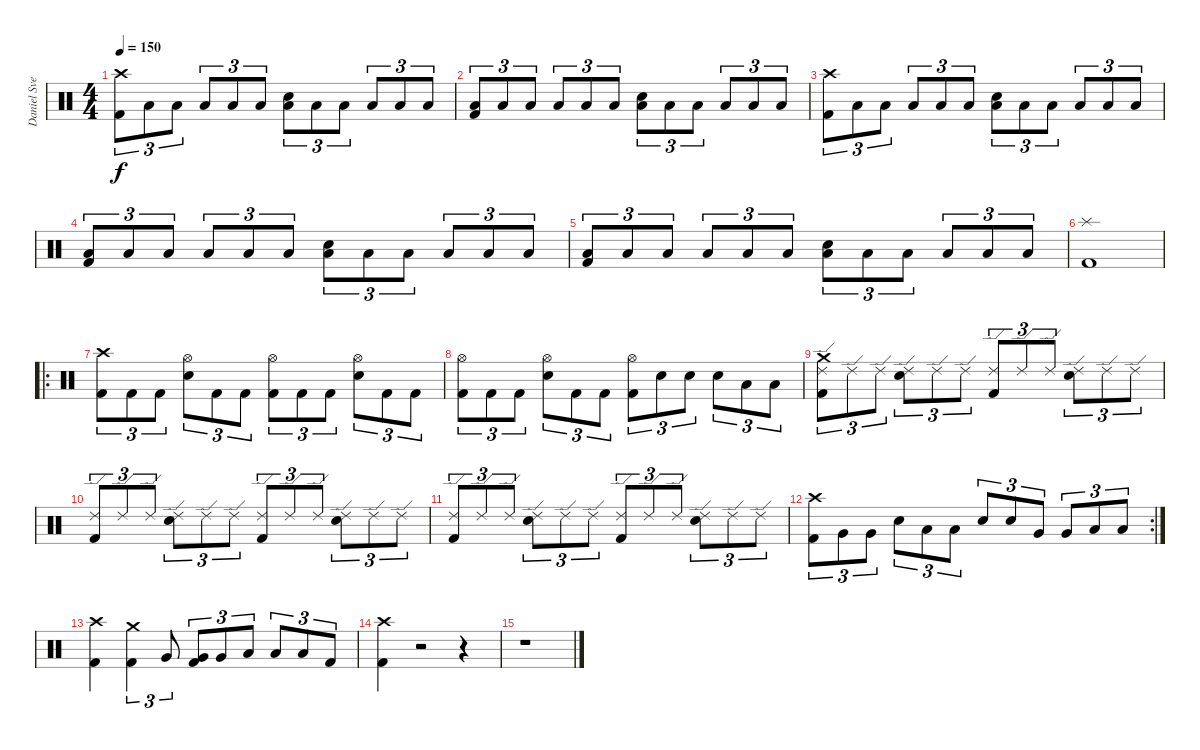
\track ("Daniel Svensson" "Daniel Sve") {instrument percussion}
\staff {score}
\articulation defaults
\ts (4 4)
\tempo 150
\clef neutral
\ks c
("Crash high (hit)" "Kick (hit) 2").8{tu (3 2) dy f} "Low Floor Tom (hit)".8{tu (3 2)} "Low Floor Tom (hit)".8{tu (3 2)} "Low Floor Tom (hit)".8{tu (3 2)} "Low Floor Tom (hit)".8{tu (3 2)} "Low Floor Tom (hit)".8{tu (3 2)} ("Electric Snare (hit)" "Low Floor Tom (hit)").8{tu (3 2)} "Low Floor Tom (hit)".8{tu (3 2)} "Low Floor Tom (hit)".8{tu (3 2)} "Low Floor Tom (hit)".8{tu (3 2)} "Low Floor Tom (hit)".8{tu (3 2)} "Low Floor Tom (hit)".8{tu (3 2)} |
("Kick (hit) 2" "Low Floor Tom (hit)").8{tu (3 2)} "Low Floor Tom (hit)".8{tu (3 2)} "Low Floor Tom (hit)".8{tu (3 2)} "Low Floor Tom (hit)".8{tu (3 2)} "Low Floor Tom (hit)".8{tu (3 2)} "Low Floor Tom (hit)".8{tu (3 2)} ("Electric Snare (hit)" "Low Floor Tom (hit)").8{tu (3 2)} "Low Floor Tom (hit)".8{tu (3 2)} "Low Floor Tom (hit)".8{tu (3 2)} "Low Floor Tom (hit)".8{tu (3 2)} "Low Floor Tom (hit)".8{tu (3 2)} "Low Floor Tom (hit)".8{tu (3 2)} |
("Crash high (hit)" "Kick (hit) 2").8{tu (3 2)} "Low Floor Tom (hit)".8{tu (3 2)} "Low Floor Tom (hit)".8{tu (3 2)} "Low Floor Tom (hit)".8{tu (3 2)} "Low Floor Tom (hit)".8{tu (3 2)} "Low Floor Tom (hit)".8{tu (3 2)} ("Electric Snare (hit)" "Low Floor Tom (hit)").8{tu (3 2)} "Low Floor Tom (hit)".8{tu (3 2)} "Low Floor Tom (hit)".8{tu (3 2)} "Low Floor Tom (hit)".8{tu (3 2)} "Low Floor Tom (hit)".8{tu (3 2)} "Low Floor Tom (hit)".8{tu (3 2)} |
("Kick (hit) 2" "Low Floor Tom (hit)").8{tu (3 2)} "Low Floor Tom (hit)".8{tu (3 2)} "Low Floor Tom (hit)".8{tu (3 2)} "Low Floor Tom (hit)".8{tu (3 2)} "Low Floor Tom (hit)".8{tu (3 2)} "Low Floor Tom (hit)".8{tu (3 2)} ("Electric Snare (hit)" "Low Floor Tom (hit)").8{tu (3 2)} "Low Floor Tom (hit)".8{tu (3 2)} "Low Floor Tom (hit)".8{tu (3 2)} "Low Floor Tom (hit)".8{tu (3 2)} "Low Floor Tom (hit)".8{tu (3 2)} "Low Floor Tom (hit)".8{tu (3 2)} |
("Kick (hit) 2" "Low Floor Tom (hit)").8{tu (3 2)} "Low Floor Tom (hit)".8{tu (3 2)} "Low Floor Tom (hit)".8{tu (3 2)} "Low Floor Tom (hit)".8{tu (3 2)} "Low Floor Tom (hit)".8{tu (3 2)} "Low Floor Tom (hit)".8{tu (3 2)} ("Electric Snare (hit)" "Low Floor Tom (hit)").8{tu (3 2)} "Low Floor Tom (hit)".8{tu (3 2)} "Low Floor Tom (hit)".8{tu (3 2)} "Low Floor Tom (hit)".8{tu (3 2)} "Low Floor Tom (hit)".8{tu (3 2)} "Low Floor Tom (hit)".8{tu (3 2)} |
("Splash (hit)" "Kick (hit) 2").1 |
\ro
("Crash high (hit)" "Kick (hit) 2").8{tu (3 2)} "Kick (hit) 2".8{tu (3 2)} "Kick (hit) 2".8{tu (3 2)} ("Hi-Hat (open)" "Electric Snare (hit)").8{tu (3 2)} "Kick (hit) 2".8{tu (3 2)} "Kick (hit) 2".8{tu (3 2)} ("Hi-Hat (open)" "Kick (hit) 2").8{tu (3 2)} "Kick (hit) 2".8{tu (3 2)} "Kick (hit) 2".8{tu (3 2)} ("Hi-Hat (open)" "Electric Snare (hit)").8{tu (3 2)} "Kick (hit) 2".8{tu (3 2)} "Kick (hit) 2".8{tu (3 2)} |
("Hi-Hat (open)" "Kick (hit) 2").8{tu (3 2)} "Kick (hit) 2".8{tu (3 2)} "Kick (hit) 2".8{tu (3 2)} ("Hi-Hat (open)" "Electric Snare (hit)").8{tu (3 2)} "Kick (hit) 2".8{tu (3 2)} "Kick (hit) 2".8{tu (3 2)} ("Hi-Hat (open)" "Kick (hit) 2").8{tu (3 2)} "Electric Snare (hit)".8{tu (3 2)} "Electric Snare (hit)".8{tu (3 2)} "Electric Snare (hit)".8{tu (3 2)} "Low Floor Tom (hit)".8{tu (3 2)} "Low Floor Tom (hit)".8{tu (3 2)} |
("Ride (edge) 2" "Crash medium (hit)" "Kick (hit) 2").8{tu (3 2)} "Ride (edge) 2".8{tu (3 2)} "Ride (edge) 2".8{tu (3 2)} ("Ride (edge) 2" "Electric Snare (hit)").8{tu (3 2)} "Ride (edge) 2".8{tu (3 2)} "Ride (edge) 2".8{tu (3 2)} ("Ride (edge) 2" "Kick (hit) 2").8{tu (3 2)} "Ride (edge) 2".8{tu (3 2)} "Ride (edge) 2".8{tu (3 2)} ("Ride (edge) 2" "Electric Snare (hit)").8{tu (3 2)} "Ride (edge) 2".8{tu (3 2)} "Ride (edge) 2".8{tu (3 2)} |
("Ride (edge) 2" "Kick (hit) 2").8{tu (3 2)} "Ride (edge) 2".8{tu (3 2)} "Ride (edge) 2".8{tu (3 2)} ("Ride (edge) 2" "Electric Snare (hit)").8{tu (3 2)} "Ride (edge) 2".8{tu (3 2)} "Ride (edge) 2".8{tu (3 2)} ("Ride (edge) 2" "Kick (hit) 2").8{tu (3 2)} "Ride (edge) 2".8{tu (3 2)} "Ride (edge) 2".8{tu (3 2)} ("Ride (edge) 2" "Electric Snare (hit)").8{tu (3 2)} "Ride (edge) 2".8{tu (3 2)} "Ride (edge) 2".8{tu (3 2)} |
("Ride (edge) 2" "Kick (hit) 2").8{tu (3 2)} "Ride (edge) 2".8{tu (3 2)} "Ride (edge) 2".8{tu (3 2)} ("Ride (edge) 2" "Electric Snare (hit)").8{tu (3 2)} "Ride (edge) 2".8{tu (3 2)} "Ride (edge) 2".8{tu (3 2)} ("Ride (edge) 2" "Kick (hit) 2").8{tu (3 2)} "Ride (edge) 2".8{tu (3 2)} "Ride (edge) 2".8{tu (3 2)} ("Ride (edge) 2" "Electric Snare (hit)").8{tu (3 2)} "Ride (edge) 2".8{tu (3 2)} "Ride (edge) 2".8{tu (3 2)} |
\rc 2
("Crash high (hit)" "Kick (hit) 2").8{tu (3 2)} "Very Low Tom (hit)".8{tu (3 2)} "Very Low Tom (hit)".8{tu (3 2)} "Electric Snare (hit)".8{tu (3 2)} "Low Floor Tom (hit)".8{tu (3 2)} "Low Floor Tom (hit)".8{tu (3 2)} "Electric Snare (hit)".8{tu (3 2)} "Electric Snare (hit)".8{tu (3 2)} "Very Low Tom (hit)".8{tu (3 2)} "Very Low Tom (hit)".8{tu (3 2)} "Low Floor Tom (hit)".8{tu (3 2)} "Low Floor Tom (hit)".8{tu (3 2)} |
("Crash high (hit)" "Kick (hit) 2").4 ("Crash medium (hit)" "Kick (hit) 2").4{tu (3 2)} "Very Low Tom (hit)".8{tu (3 2)} ("Kick (hit) 2" "Very Low Tom (hit)").8{tu (3 2)} "Very Low Tom (hit)".8{tu (3 2)} "Low Floor Tom (hit)".8{tu (3 2)} "Low Floor Tom (hit)".8{tu (3 2)} "Low Floor Tom (hit)".8{tu (3 2)} "Kick (hit) 2".8{tu (3 2)} |
("Crash high (hit)" "Kick (hit) 2").4 r.2 r.4 |
r.1
